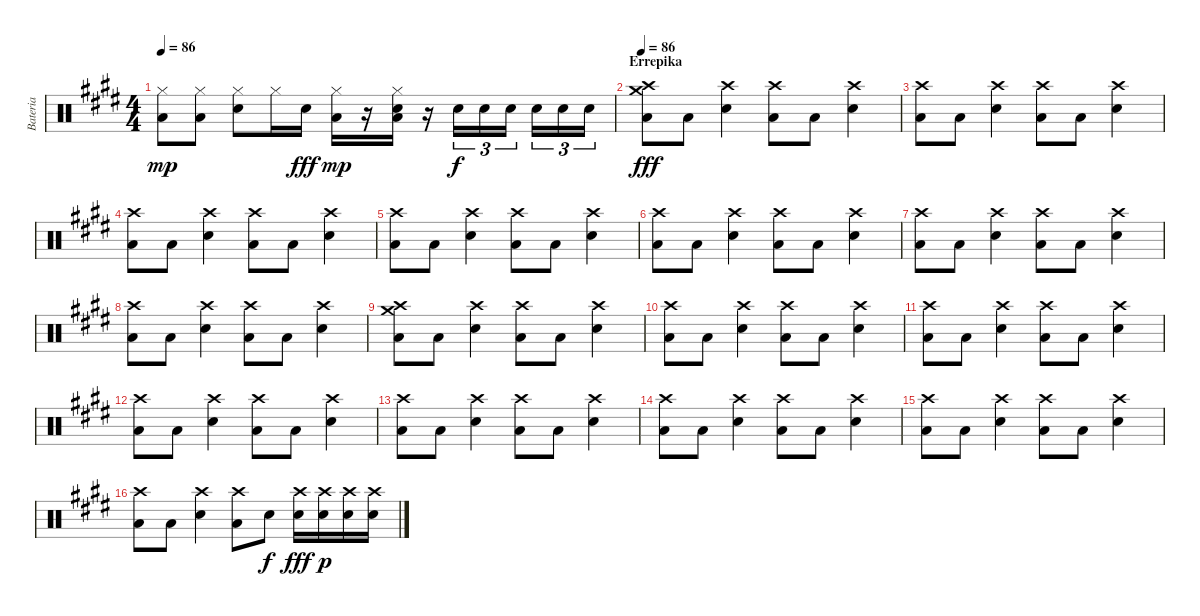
\track ("Bateria" "Bateria") {instrument percussion}
\staff {score}
\articulation defaults
\ts (4 4)
\tempo 86
\clef neutral
\ks e
("Low Floor Tom (hit)" "Hi-Hat (closed)").8{dy mp} ("Low Floor Tom (hit)" "Hi-Hat (closed)").8 ("Electric Snare (hit)" "Hi-Hat (closed)").8 "Hi-Hat (closed)".16 "Electric Snare (hit)".16{dy fff} ("Low Floor Tom (hit)" "Hi-Hat (closed)").16{dy mp} r.16 ("Electric Snare (hit)" "Low Floor Tom (hit)" "Hi-Hat (closed)").16 r.16 "Electric Snare (hit)".16{tu (3 2) dy f} "Electric Snare (hit)".16{tu (3 2)} "Electric Snare (hit)".16{tu (3 2)} "Electric Snare (hit)".16{tu (3 2)} "Electric Snare (hit)".16{tu (3 2)} "Electric Snare (hit)".16{tu (3 2)} |
\section ("" "Errepika")
\tempo 86
("Crash high (hit)" "Low Floor Tom (hit)" "Crash medium (hit)").8{dy fff} "Low Floor Tom (hit)".8 ("Crash high (hit)" "Electric Snare (hit)").4 ("Crash high (hit)" "Low Floor Tom (hit)").8 "Low Floor Tom (hit)".8 ("Crash high (hit)" "Electric Snare (hit)").4 |
("Crash high (hit)" "Low Floor Tom (hit)").8 "Low Floor Tom (hit)".8 ("Crash high (hit)" "Electric Snare (hit)").4 ("Crash high (hit)" "Low Floor Tom (hit)").8 "Low Floor Tom (hit)".8 ("Crash high (hit)" "Electric Snare (hit)").4 |
("Crash high (hit)" "Low Floor Tom (hit)").8 "Low Floor Tom (hit)".8 ("Crash high (hit)" "Electric Snare (hit)").4 ("Crash high (hit)" "Low Floor Tom (hit)").8 "Low Floor Tom (hit)".8 ("Crash high (hit)" "Electric Snare (hit)").4 |
("Crash high (hit)" "Low Floor Tom (hit)").8 "Low Floor Tom (hit)".8 ("Crash high (hit)" "Electric Snare (hit)").4 ("Crash high (hit)" "Low Floor Tom (hit)").8 "Low Floor Tom (hit)".8 ("Crash high (hit)" "Electric Snare (hit)").4 |
("Crash high (hit)" "Low Floor Tom (hit)").8 "Low Floor Tom (hit)".8 ("Crash high (hit)" "Electric Snare (hit)").4 ("Crash high (hit)" "Low Floor Tom (hit)").8 "Low Floor Tom (hit)".8 ("Crash high (hit)" "Electric Snare (hit)").4 |
("Crash high (hit)" "Low Floor Tom (hit)").8 "Low Floor Tom (hit)".8 ("Crash high (hit)" "Electric Snare (hit)").4 ("Crash high (hit)" "Low Floor Tom (hit)").8 "Low Floor Tom (hit)".8 ("Crash high (hit)" "Electric Snare (hit)").4 |
("Crash high (hit)" "Low Floor Tom (hit)").8 "Low Floor Tom (hit)".8 ("Crash high (hit)" "Electric Snare (hit)").4 ("Crash high (hit)" "Low Floor Tom (hit)").8 "Low Floor Tom (hit)".8 ("Crash high (hit)" "Electric Snare (hit)").4 |
("Crash high (hit)" "Low Floor Tom (hit)" "Crash medium (hit)").8 "Low Floor Tom (hit)".8 ("Crash high (hit)" "Electric Snare (hit)").4 ("Crash high (hit)" "Low Floor Tom (hit)").8 "Low Floor Tom (hit)".8 ("Crash high (hit)" "Electric Snare (hit)").4 |
("Crash high (hit)" "Low Floor Tom (hit)").8 "Low Floor Tom (hit)".8 ("Crash high (hit)" "Electric Snare (hit)").4 ("Crash high (hit)" "Low Floor Tom (hit)").8 "Low Floor Tom (hit)".8 ("Crash high (hit)" "Electric Snare (hit)").4 |
("Crash high (hit)" "Low Floor Tom (hit)").8 "Low Floor Tom (hit)".8 ("Crash high (hit)" "Electric Snare (hit)").4 ("Crash high (hit)" "Low Floor Tom (hit)").8 "Low Floor Tom (hit)".8 ("Crash high (hit)" "Electric Snare (hit)").4 |
("Crash high (hit)" "Low Floor Tom (hit)").8 "Low Floor Tom (hit)".8 ("Crash high (hit)" "Electric Snare (hit)").4 ("Crash high (hit)" "Low Floor Tom (hit)").8 "Low Floor Tom (hit)".8 ("Crash high (hit)" "Electric Snare (hit)").4 |
("Crash high (hit)" "Low Floor Tom (hit)").8 "Low Floor Tom (hit)".8 ("Crash high (hit)" "Electric Snare (hit)").4 ("Crash high (hit)" "Low Floor Tom (hit)").8 "Low Floor Tom (hit)".8 ("Crash high (hit)" "Electric Snare (hit)").4 |
("Crash high (hit)" "Low Floor Tom (hit)").8 "Low Floor Tom (hit)".8 ("Crash high (hit)" "Electric Snare (hit)").4 ("Crash high (hit)" "Low Floor Tom (hit)").8 "Low Floor Tom (hit)".8 ("Crash high (hit)" "Electric Snare (hit)").4 |
("Crash high (hit)" "Low Floor Tom (hit)").8 "Low Floor Tom (hit)".8 ("Crash high (hit)" "Electric Snare (hit)").4 ("Crash high (hit)" "Low Floor Tom (hit)").8 "Low Floor Tom (hit)".8 ("Crash high (hit)" "Electric Snare (hit)").4 |
("Crash high (hit)" "Low Floor Tom (hit)").8 "Low Floor Tom (hit)".8 ("Crash high (hit)" "Electric Snare (hit)").4 ("Crash high (hit)" "Low Floor Tom (hit)").8 "Electric Snare (hit)".8{dy f} ("Crash high (hit)" "Electric Snare (hit)").16{dy fff} ("Crash high (hit)" "Electric Snare (hit)").16{dy p} ("Crash high (hit)" "Electric Snare (hit)").16 ("Crash high (hit)" "Electric Snare (hit)").16
